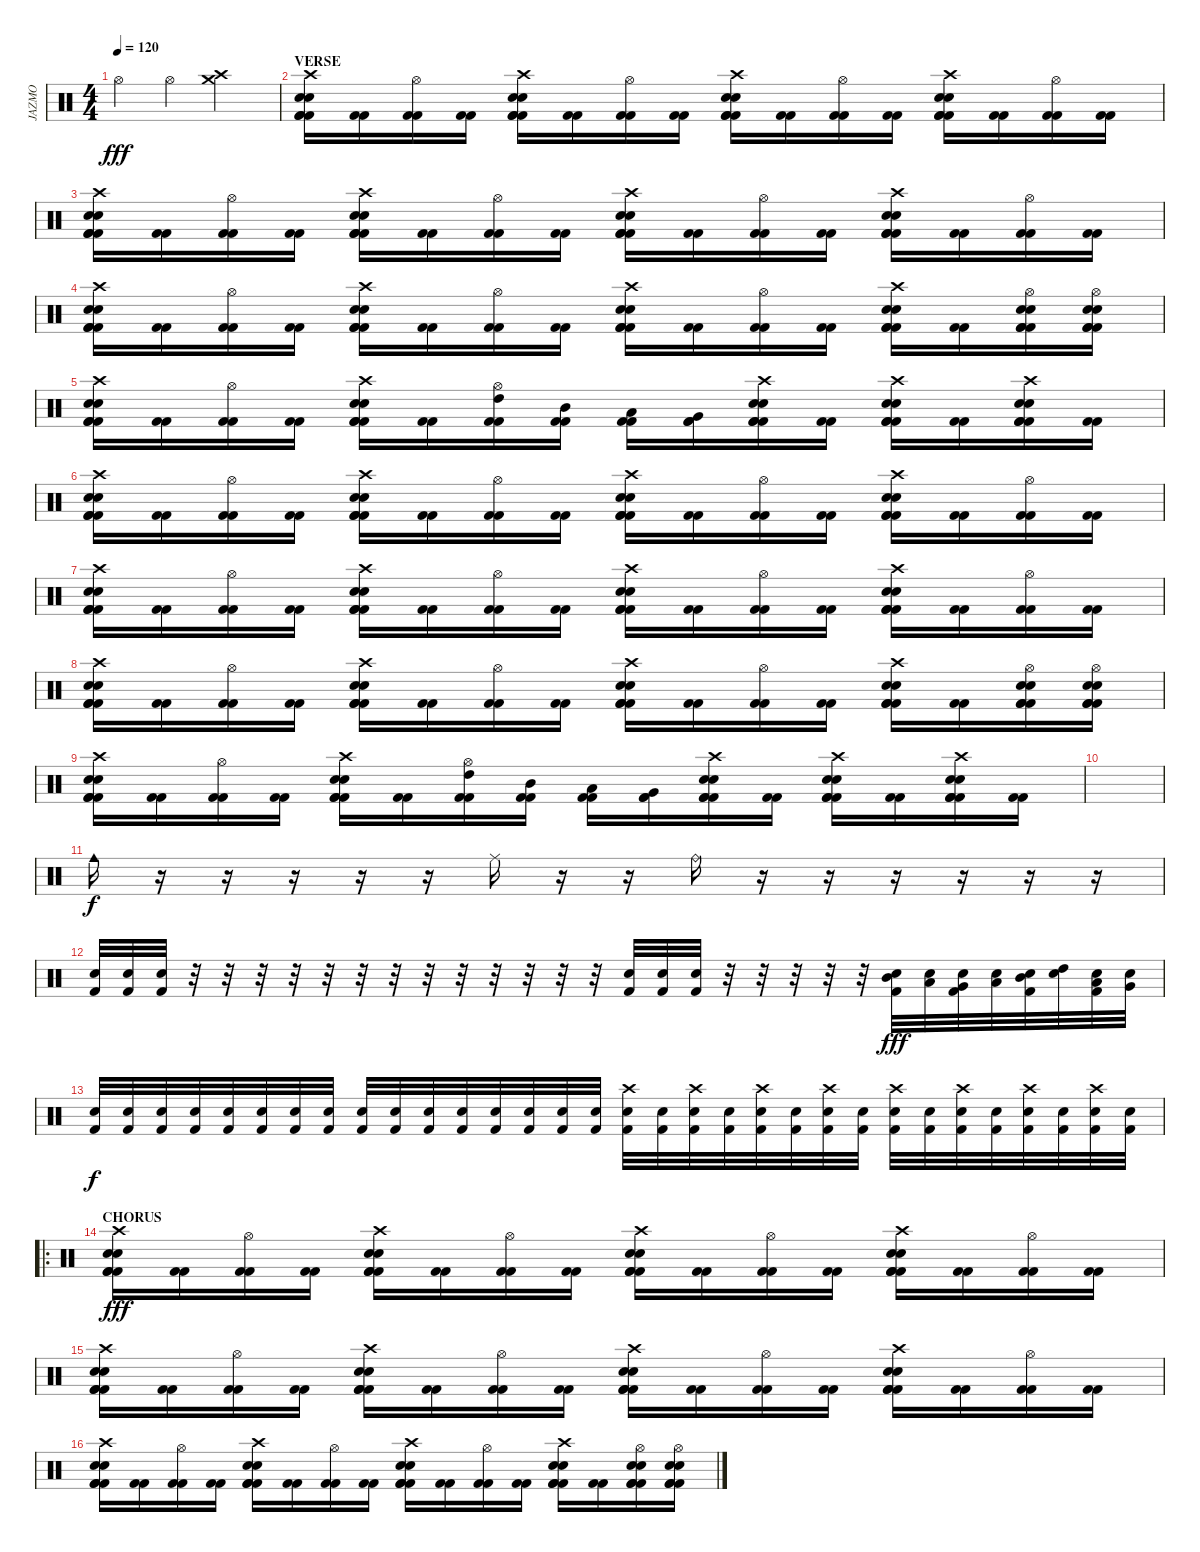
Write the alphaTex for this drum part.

\track ("JAZMO" "JAZMO") {instrument percussion}
\staff {score}
\articulation defaults
\ts (4 4)
\tempo 120
\clef neutral
\ks c "Hi-Hat (open)".4{dy fff} "Hi-Hat (open)".4
("Crash medium (hit)" "Crash high (hit)").2 |
\section ("" "VERSE")
("Electric Snare (hit)" "Kick (hit) 2" "Crash high (hit)" "Electric Snare (hit)" "Kick (hit) 2" "Kick (hit) 2").16 ("Kick (hit) 2" "Kick (hit) 2").16 ("Hi-Hat (open)" "Kick (hit) 2" "Kick (hit) 2").16 ("Kick (hit) 2" "Kick (hit) 2").16 ("Electric Snare (hit)" "Kick (hit) 2" "Crash high (hit)" "Electric Snare (hit)" "Kick (hit) 2" "Kick (hit) 2").16 ("Kick (hit) 2" "Kick (hit) 2").16 ("Hi-Hat (open)" "Kick (hit) 2" "Kick (hit) 2").16 ("Kick (hit) 2" "Kick (hit) 2").16 ("Electric Snare (hit)" "Kick (hit) 2" "Crash high (hit)" "Electric Snare (hit)" "Kick (hit) 2" "Kick (hit) 2").16 ("Kick (hit) 2" "Kick (hit) 2").16 ("Hi-Hat (open)" "Kick (hit) 2" "Kick (hit) 2").16 ("Kick (hit) 2" "Kick (hit) 2").16 ("Electric Snare (hit)" "Kick (hit) 2" "Crash high (hit)" "Electric Snare (hit)" "Kick (hit) 2" "Kick (hit) 2").16 ("Kick (hit) 2" "Kick (hit) 2").16 ("Hi-Hat (open)" "Kick (hit) 2" "Kick (hit) 2").16 ("Kick (hit) 2" "Kick (hit) 2").16 |
("Electric Snare (hit)" "Kick (hit) 2" "Crash high (hit)" "Electric Snare (hit)" "Kick (hit) 2" "Kick (hit) 2").16 ("Kick (hit) 2" "Kick (hit) 2").16 ("Hi-Hat (open)" "Kick (hit) 2" "Kick (hit) 2").16 ("Kick (hit) 2" "Kick (hit) 2").16 ("Electric Snare (hit)" "Kick (hit) 2" "Crash high (hit)" "Electric Snare (hit)" "Kick (hit) 2" "Kick (hit) 2").16 ("Kick (hit) 2" "Kick (hit) 2").16 ("Hi-Hat (open)" "Kick (hit) 2" "Kick (hit) 2").16 ("Kick (hit) 2" "Kick (hit) 2").16 ("Electric Snare (hit)" "Kick (hit) 2" "Crash high (hit)" "Electric Snare (hit)" "Kick (hit) 2" "Kick (hit) 2").16 ("Kick (hit) 2" "Kick (hit) 2").16 ("Hi-Hat (open)" "Kick (hit) 2" "Kick (hit) 2").16 ("Kick (hit) 2" "Kick (hit) 2").16 ("Electric Snare (hit)" "Kick (hit) 2" "Crash high (hit)" "Electric Snare (hit)" "Kick (hit) 2" "Kick (hit) 2").16 ("Kick (hit) 2" "Kick (hit) 2").16 ("Hi-Hat (open)" "Kick (hit) 2" "Kick (hit) 2").16 ("Kick (hit) 2" "Kick (hit) 2").16 |
("Electric Snare (hit)" "Kick (hit) 2" "Crash high (hit)" "Electric Snare (hit)" "Kick (hit) 2" "Kick (hit) 2").16 ("Kick (hit) 2" "Kick (hit) 2").16 ("Hi-Hat (open)" "Kick (hit) 2" "Kick (hit) 2").16 ("Kick (hit) 2" "Kick (hit) 2").16 ("Electric Snare (hit)" "Kick (hit) 2" "Crash high (hit)" "Electric Snare (hit)" "Kick (hit) 2" "Kick (hit) 2").16 ("Kick (hit) 2" "Kick (hit) 2").16 ("Hi-Hat (open)" "Kick (hit) 2" "Kick (hit) 2").16 ("Kick (hit) 2" "Kick (hit) 2").16 ("Electric Snare (hit)" "Kick (hit) 2" "Crash high (hit)" "Electric Snare (hit)" "Kick (hit) 2" "Kick (hit) 2").16 ("Kick (hit) 2" "Kick (hit) 2").16 ("Hi-Hat (open)" "Kick (hit) 2" "Kick (hit) 2").16 ("Kick (hit) 2" "Kick (hit) 2").16 ("Electric Snare (hit)" "Kick (hit) 2" "Crash high (hit)" "Electric Snare (hit)" "Kick (hit) 2" "Kick (hit) 2").16 ("Kick (hit) 2" "Kick (hit) 2").16 ("Electric Snare (hit)" "Kick (hit) 2" "Hi-Hat (open)" "Electric Snare (hit)" "Kick (hit) 2" "Kick (hit) 2").16 ("Electric Snare (hit)" "Kick (hit) 2" "Hi-Hat (open)" "Electric Snare (hit)" "Kick (hit) 2" "Kick (hit) 2").16 |
("Electric Snare (hit)" "Kick (hit) 2" "Crash high (hit)" "Electric Snare (hit)" "Kick (hit) 2" "Kick (hit) 2").16 ("Kick (hit) 2" "Kick (hit) 2").16 ("Hi-Hat (open)" "Kick (hit) 2" "Kick (hit) 2").16 ("Kick (hit) 2" "Kick (hit) 2").16 ("Electric Snare (hit)" "Kick (hit) 2" "Crash high (hit)" "Electric Snare (hit)" "Kick (hit) 2" "Kick (hit) 2").16 ("Kick (hit) 2" "Kick (hit) 2").16 ("High Tom (hit)" "Hi-Hat (open)" "Kick (hit) 2" "Kick (hit) 2").16 ("Mid Tom (hit)" "Kick (hit) 2" "Kick (hit) 2").16 ("Low Tom (hit)" "Kick (hit) 2" "Kick (hit) 2").16 ("Very Low Tom (hit)" "Kick (hit) 2" "Kick (hit) 2").16 ("Electric Snare (hit)" "Kick (hit) 2" "Crash high (hit)" "Electric Snare (hit)" "Kick (hit) 2" "Kick (hit) 2").16 ("Kick (hit) 2" "Kick (hit) 2").16 ("Electric Snare (hit)" "Kick (hit) 2" "Crash high (hit)" "Electric Snare (hit)" "Kick (hit) 2" "Kick (hit) 2").16 ("Kick (hit) 2" "Kick (hit) 2").16 ("Electric Snare (hit)" "Kick (hit) 2" "Crash high (hit)" "Electric Snare (hit)" "Kick (hit) 2" "Kick (hit) 2").16 ("Kick (hit) 2" "Kick (hit) 2").16 |
("Electric Snare (hit)" "Kick (hit) 2" "Crash high (hit)" "Electric Snare (hit)" "Kick (hit) 2" "Kick (hit) 2").16 ("Kick (hit) 2" "Kick (hit) 2").16 ("Hi-Hat (open)" "Kick (hit) 2" "Kick (hit) 2").16 ("Kick (hit) 2" "Kick (hit) 2").16 ("Electric Snare (hit)" "Kick (hit) 2" "Crash high (hit)" "Electric Snare (hit)" "Kick (hit) 2" "Kick (hit) 2").16 ("Kick (hit) 2" "Kick (hit) 2").16 ("Hi-Hat (open)" "Kick (hit) 2" "Kick (hit) 2").16 ("Kick (hit) 2" "Kick (hit) 2").16 ("Electric Snare (hit)" "Kick (hit) 2" "Crash high (hit)" "Electric Snare (hit)" "Kick (hit) 2" "Kick (hit) 2").16 ("Kick (hit) 2" "Kick (hit) 2").16 ("Hi-Hat (open)" "Kick (hit) 2" "Kick (hit) 2").16 ("Kick (hit) 2" "Kick (hit) 2").16 ("Electric Snare (hit)" "Kick (hit) 2" "Crash high (hit)" "Electric Snare (hit)" "Kick (hit) 2" "Kick (hit) 2").16 ("Kick (hit) 2" "Kick (hit) 2").16 ("Hi-Hat (open)" "Kick (hit) 2" "Kick (hit) 2").16 ("Kick (hit) 2" "Kick (hit) 2").16 |
("Electric Snare (hit)" "Kick (hit) 2" "Crash high (hit)" "Electric Snare (hit)" "Kick (hit) 2" "Kick (hit) 2").16 ("Kick (hit) 2" "Kick (hit) 2").16 ("Hi-Hat (open)" "Kick (hit) 2" "Kick (hit) 2").16 ("Kick (hit) 2" "Kick (hit) 2").16 ("Electric Snare (hit)" "Kick (hit) 2" "Crash high (hit)" "Electric Snare (hit)" "Kick (hit) 2" "Kick (hit) 2").16 ("Kick (hit) 2" "Kick (hit) 2").16 ("Hi-Hat (open)" "Kick (hit) 2" "Kick (hit) 2").16 ("Kick (hit) 2" "Kick (hit) 2").16 ("Electric Snare (hit)" "Kick (hit) 2" "Crash high (hit)" "Electric Snare (hit)" "Kick (hit) 2" "Kick (hit) 2").16 ("Kick (hit) 2" "Kick (hit) 2").16 ("Hi-Hat (open)" "Kick (hit) 2" "Kick (hit) 2").16 ("Kick (hit) 2" "Kick (hit) 2").16 ("Electric Snare (hit)" "Kick (hit) 2" "Crash high (hit)" "Electric Snare (hit)" "Kick (hit) 2" "Kick (hit) 2").16 ("Kick (hit) 2" "Kick (hit) 2").16 ("Hi-Hat (open)" "Kick (hit) 2" "Kick (hit) 2").16 ("Kick (hit) 2" "Kick (hit) 2").16 |
("Electric Snare (hit)" "Kick (hit) 2" "Crash high (hit)" "Electric Snare (hit)" "Kick (hit) 2" "Kick (hit) 2").16 ("Kick (hit) 2" "Kick (hit) 2").16 ("Hi-Hat (open)" "Kick (hit) 2" "Kick (hit) 2").16 ("Kick (hit) 2" "Kick (hit) 2").16 ("Electric Snare (hit)" "Kick (hit) 2" "Crash high (hit)" "Electric Snare (hit)" "Kick (hit) 2" "Kick (hit) 2").16 ("Kick (hit) 2" "Kick (hit) 2").16 ("Hi-Hat (open)" "Kick (hit) 2" "Kick (hit) 2").16 ("Kick (hit) 2" "Kick (hit) 2").16 ("Electric Snare (hit)" "Kick (hit) 2" "Crash high (hit)" "Electric Snare (hit)" "Kick (hit) 2" "Kick (hit) 2").16 ("Kick (hit) 2" "Kick (hit) 2").16 ("Hi-Hat (open)" "Kick (hit) 2" "Kick (hit) 2").16 ("Kick (hit) 2" "Kick (hit) 2").16 ("Electric Snare (hit)" "Kick (hit) 2" "Crash high (hit)" "Electric Snare (hit)" "Kick (hit) 2" "Kick (hit) 2").16 ("Kick (hit) 2" "Kick (hit) 2").16 ("Electric Snare (hit)" "Kick (hit) 2" "Hi-Hat (open)" "Electric Snare (hit)" "Kick (hit) 2" "Kick (hit) 2").16 ("Electric Snare (hit)" "Kick (hit) 2" "Hi-Hat (open)" "Electric Snare (hit)" "Kick (hit) 2" "Kick (hit) 2").16 |
("Electric Snare (hit)" "Kick (hit) 2" "Crash high (hit)" "Electric Snare (hit)" "Kick (hit) 2" "Kick (hit) 2").16 ("Kick (hit) 2" "Kick (hit) 2").16 ("Hi-Hat (open)" "Kick (hit) 2" "Kick (hit) 2").16 ("Kick (hit) 2" "Kick (hit) 2").16 ("Electric Snare (hit)" "Kick (hit) 2" "Crash high (hit)" "Electric Snare (hit)" "Kick (hit) 2" "Kick (hit) 2").16 ("Kick (hit) 2" "Kick (hit) 2").16 ("High Tom (hit)" "Hi-Hat (open)" "Kick (hit) 2" "Kick (hit) 2").16 ("Mid Tom (hit)" "Kick (hit) 2" "Kick (hit) 2").16 ("Low Tom (hit)" "Kick (hit) 2" "Kick (hit) 2").16 ("Very Low Tom (hit)" "Kick (hit) 2" "Kick (hit) 2").16 ("Electric Snare (hit)" "Kick (hit) 2" "Crash high (hit)" "Electric Snare (hit)" "Kick (hit) 2" "Kick (hit) 2").16 ("Kick (hit) 2" "Kick (hit) 2").16 ("Electric Snare (hit)" "Kick (hit) 2" "Crash high (hit)" "Electric Snare (hit)" "Kick (hit) 2" "Kick (hit) 2").16 ("Kick (hit) 2" "Kick (hit) 2").16 ("Electric Snare (hit)" "Kick (hit) 2" "Crash high (hit)" "Electric Snare (hit)" "Kick (hit) 2" "Kick (hit) 2").16 ("Kick (hit) 2" "Kick (hit) 2").16 |
|
"Cowbell medium (hit)".16{dy f} r.16 r.16 r.16 r.16 r.16 "Ride (middle)".16 r.16 r.16 "Ride (bell)".16 r.16 r.16 r.16 r.16 r.16 r.16 |
("Kick (hit) 2" "Electric Snare (hit)").32 ("Kick (hit) 2" "Electric Snare (hit)").32 ("Kick (hit) 2" "Electric Snare (hit)").32 r.32 r.32 r.32 r.32 r.32 r.32 r.32 r.32 r.32 r.32 r.32 r.32 r.32 ("Kick (hit) 2" "Electric Snare (hit)").32 ("Kick (hit) 2" "Electric Snare (hit)").32 ("Kick (hit) 2" "Electric Snare (hit)").32 r.32 r.32 r.32 r.32 r.32 ("Mid Tom (hit)" "Kick (hit) 2" "Electric Snare (hit)").32{dy fff} ("Low Tom (hit)" "Electric Snare (hit)").32 ("Very Low Tom (hit)" "Kick (hit) 2" "Electric Snare (hit)").32 ("Low Tom (hit)" "Electric Snare (hit)").32 ("Mid Tom (hit)" "Kick (hit) 2" "Electric Snare (hit)").32 ("High Tom (hit)" "Electric Snare (hit)").32 ("Low Tom (hit)" "Kick (hit) 2" "Electric Snare (hit)").32 ("Very Low Tom (hit)" "Electric Snare (hit)").32 |
("Kick (hit) 2" "Electric Snare (hit)").32{dy f} ("Kick (hit) 2" "Electric Snare (hit)").32 ("Kick (hit) 2" "Electric Snare (hit)").32 ("Kick (hit) 2" "Electric Snare (hit)").32 ("Kick (hit) 2" "Electric Snare (hit)").32 ("Kick (hit) 2" "Electric Snare (hit)").32 ("Kick (hit) 2" "Electric Snare (hit)").32 ("Kick (hit) 2" "Electric Snare (hit)").32 ("Kick (hit) 2" "Electric Snare (hit)").32 ("Kick (hit) 2" "Electric Snare (hit)").32 ("Kick (hit) 2" "Electric Snare (hit)").32 ("Kick (hit) 2" "Electric Snare (hit)").32 ("Kick (hit) 2" "Electric Snare (hit)").32 ("Kick (hit) 2" "Electric Snare (hit)").32 ("Kick (hit) 2" "Electric Snare (hit)").32 ("Kick (hit) 2" "Electric Snare (hit)").32 ("Crash high (hit)" "Kick (hit) 2" "Electric Snare (hit)").32 ("Kick (hit) 2" "Electric Snare (hit)").32 ("Crash high (hit)" "Kick (hit) 2" "Electric Snare (hit)").32 ("Kick (hit) 2" "Electric Snare (hit)").32 ("Crash high (hit)" "Kick (hit) 2" "Electric Snare (hit)").32 ("Kick (hit) 2" "Electric Snare (hit)").32 ("Crash high (hit)" "Kick (hit) 2" "Electric Snare (hit)").32 ("Kick (hit) 2" "Electric Snare (hit)").32 ("Crash high (hit)" "Kick (hit) 2" "Electric Snare (hit)").32 ("Kick (hit) 2" "Electric Snare (hit)").32 ("Crash high (hit)" "Kick (hit) 2" "Electric Snare (hit)").32 ("Kick (hit) 2" "Electric Snare (hit)").32 ("Crash high (hit)" "Kick (hit) 2" "Electric Snare (hit)").32 ("Kick (hit) 2" "Electric Snare (hit)").32 ("Crash high (hit)" "Kick (hit) 2" "Electric Snare (hit)").32 ("Kick (hit) 2" "Electric Snare (hit)").32 |
\ro
\section ("" "CHORUS")
("Electric Snare (hit)" "Kick (hit) 2" "Crash high (hit)" "Electric Snare (hit)" "Kick (hit) 2" "Kick (hit) 2").16{dy fff} ("Kick (hit) 2" "Kick (hit) 2").16 ("Hi-Hat (open)" "Kick (hit) 2" "Kick (hit) 2").16 ("Kick (hit) 2" "Kick (hit) 2").16 ("Electric Snare (hit)" "Kick (hit) 2" "Crash high (hit)" "Electric Snare (hit)" "Kick (hit) 2" "Kick (hit) 2").16 ("Kick (hit) 2" "Kick (hit) 2").16 ("Hi-Hat (open)" "Kick (hit) 2" "Kick (hit) 2").16 ("Kick (hit) 2" "Kick (hit) 2").16 ("Electric Snare (hit)" "Kick (hit) 2" "Crash high (hit)" "Electric Snare (hit)" "Kick (hit) 2" "Kick (hit) 2").16 ("Kick (hit) 2" "Kick (hit) 2").16 ("Hi-Hat (open)" "Kick (hit) 2" "Kick (hit) 2").16 ("Kick (hit) 2" "Kick (hit) 2").16 ("Electric Snare (hit)" "Kick (hit) 2" "Crash high (hit)" "Electric Snare (hit)" "Kick (hit) 2" "Kick (hit) 2").16 ("Kick (hit) 2" "Kick (hit) 2").16 ("Hi-Hat (open)" "Kick (hit) 2" "Kick (hit) 2").16 ("Kick (hit) 2" "Kick (hit) 2").16 |
("Electric Snare (hit)" "Kick (hit) 2" "Crash high (hit)" "Electric Snare (hit)" "Kick (hit) 2" "Kick (hit) 2").16 ("Kick (hit) 2" "Kick (hit) 2").16 ("Hi-Hat (open)" "Kick (hit) 2" "Kick (hit) 2").16 ("Kick (hit) 2" "Kick (hit) 2").16 ("Electric Snare (hit)" "Kick (hit) 2" "Crash high (hit)" "Electric Snare (hit)" "Kick (hit) 2" "Kick (hit) 2").16 ("Kick (hit) 2" "Kick (hit) 2").16 ("Hi-Hat (open)" "Kick (hit) 2" "Kick (hit) 2").16 ("Kick (hit) 2" "Kick (hit) 2").16 ("Electric Snare (hit)" "Kick (hit) 2" "Crash high (hit)" "Electric Snare (hit)" "Kick (hit) 2" "Kick (hit) 2").16 ("Kick (hit) 2" "Kick (hit) 2").16 ("Hi-Hat (open)" "Kick (hit) 2" "Kick (hit) 2").16 ("Kick (hit) 2" "Kick (hit) 2").16 ("Electric Snare (hit)" "Kick (hit) 2" "Crash high (hit)" "Electric Snare (hit)" "Kick (hit) 2" "Kick (hit) 2").16 ("Kick (hit) 2" "Kick (hit) 2").16 ("Hi-Hat (open)" "Kick (hit) 2" "Kick (hit) 2").16 ("Kick (hit) 2" "Kick (hit) 2").16 |
("Electric Snare (hit)" "Kick (hit) 2" "Crash high (hit)" "Electric Snare (hit)" "Kick (hit) 2" "Kick (hit) 2").16 ("Kick (hit) 2" "Kick (hit) 2").16 ("Hi-Hat (open)" "Kick (hit) 2" "Kick (hit) 2").16 ("Kick (hit) 2" "Kick (hit) 2").16 ("Electric Snare (hit)" "Kick (hit) 2" "Crash high (hit)" "Electric Snare (hit)" "Kick (hit) 2" "Kick (hit) 2").16 ("Kick (hit) 2" "Kick (hit) 2").16 ("Hi-Hat (open)" "Kick (hit) 2" "Kick (hit) 2").16 ("Kick (hit) 2" "Kick (hit) 2").16 ("Electric Snare (hit)" "Kick (hit) 2" "Crash high (hit)" "Electric Snare (hit)" "Kick (hit) 2" "Kick (hit) 2").16 ("Kick (hit) 2" "Kick (hit) 2").16 ("Hi-Hat (open)" "Kick (hit) 2" "Kick (hit) 2").16 ("Kick (hit) 2" "Kick (hit) 2").16 ("Electric Snare (hit)" "Kick (hit) 2" "Crash high (hit)" "Electric Snare (hit)" "Kick (hit) 2" "Kick (hit) 2").16 ("Kick (hit) 2" "Kick (hit) 2").16 ("Electric Snare (hit)" "Kick (hit) 2" "Hi-Hat (open)" "Electric Snare (hit)" "Kick (hit) 2" "Kick (hit) 2").16 ("Electric Snare (hit)" "Kick (hit) 2" "Hi-Hat (open)" "Electric Snare (hit)" "Kick (hit) 2" "Kick (hit) 2").16
